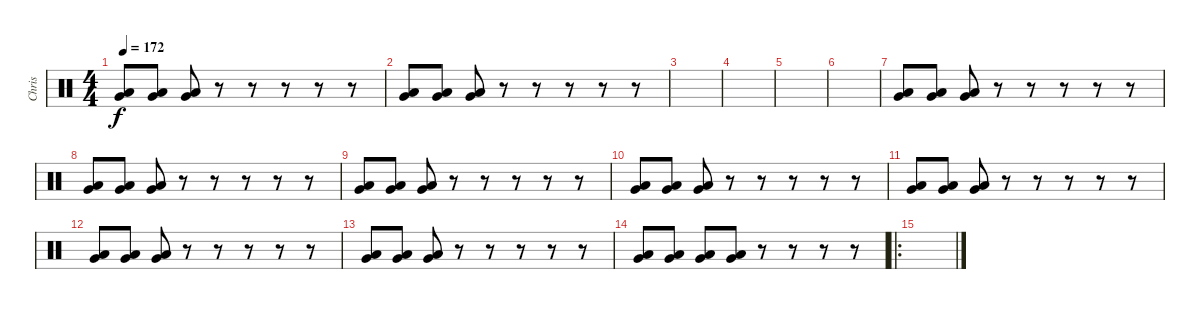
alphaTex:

\track ("Chris" "Chris") {instrument percussion}
\staff {score}
\articulation defaults
\ts (4 4)
\tempo 172
\clef neutral
\ks c
("Very Low Tom (hit)" "Low Floor Tom (hit)").8{dy f} ("Very Low Tom (hit)" "Low Floor Tom (hit)").8 ("Very Low Tom (hit)" "Low Floor Tom (hit)").8 r.8 r.8 r.8 r.8 r.8 |
("Very Low Tom (hit)" "Low Floor Tom (hit)").8 ("Very Low Tom (hit)" "Low Floor Tom (hit)").8 ("Very Low Tom (hit)" "Low Floor Tom (hit)").8 r.8 r.8 r.8 r.8 r.8 |
|
|
|
|
("Very Low Tom (hit)" "Low Floor Tom (hit)").8 ("Very Low Tom (hit)" "Low Floor Tom (hit)").8 ("Very Low Tom (hit)" "Low Floor Tom (hit)").8 r.8 r.8 r.8 r.8 r.8 |
("Very Low Tom (hit)" "Low Floor Tom (hit)").8 ("Very Low Tom (hit)" "Low Floor Tom (hit)").8 ("Very Low Tom (hit)" "Low Floor Tom (hit)").8 r.8 r.8 r.8 r.8 r.8 |
("Very Low Tom (hit)" "Low Floor Tom (hit)").8 ("Very Low Tom (hit)" "Low Floor Tom (hit)").8 ("Very Low Tom (hit)" "Low Floor Tom (hit)").8 r.8 r.8 r.8 r.8 r.8 |
("Very Low Tom (hit)" "Low Floor Tom (hit)").8 ("Very Low Tom (hit)" "Low Floor Tom (hit)").8 ("Very Low Tom (hit)" "Low Floor Tom (hit)").8 r.8 r.8 r.8 r.8 r.8 |
("Very Low Tom (hit)" "Low Floor Tom (hit)").8 ("Very Low Tom (hit)" "Low Floor Tom (hit)").8 ("Very Low Tom (hit)" "Low Floor Tom (hit)").8 r.8 r.8 r.8 r.8 r.8 |
("Very Low Tom (hit)" "Low Floor Tom (hit)").8 ("Very Low Tom (hit)" "Low Floor Tom (hit)").8 ("Very Low Tom (hit)" "Low Floor Tom (hit)").8 r.8 r.8 r.8 r.8 r.8 |
("Very Low Tom (hit)" "Low Floor Tom (hit)").8 ("Very Low Tom (hit)" "Low Floor Tom (hit)").8 ("Very Low Tom (hit)" "Low Floor Tom (hit)").8 r.8 r.8 r.8 r.8 r.8 |
("Very Low Tom (hit)" "Low Floor Tom (hit)").8 ("Very Low Tom (hit)" "Low Floor Tom (hit)").8 ("Very Low Tom (hit)" "Low Floor Tom (hit)").8 ("Very Low Tom (hit)" "Low Floor Tom (hit)").8 r.8 r.8 r.8 r.8 |
\ro
